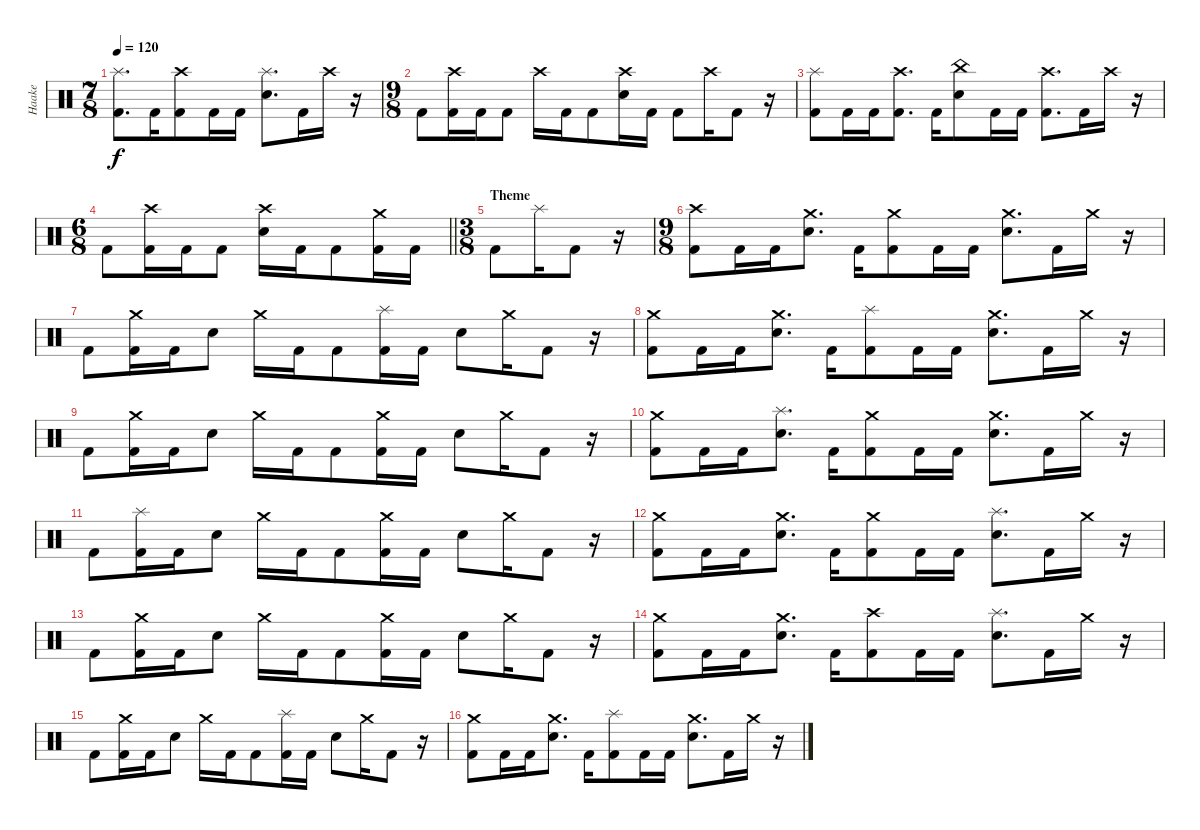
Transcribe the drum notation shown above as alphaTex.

\track ("Haake" "Haake") {instrument percussion}
\staff {score}
\articulation defaults
\ts (7 8)
\tempo 120
\clef neutral
\ks c
("Splash (hit)" "Kick (hit) 2").8{d dy f} "Kick (hit) 2".16 ("Crash high (hit)" "Kick (hit) 2").8 "Kick (hit) 2".16 "Kick (hit) 2".16 ("Splash (hit)" "Electric Snare (hit)").8{d} "Kick (hit) 2".16 "Crash high (hit)".16 r.16 |
\ts (9 8)
"Kick (hit) 2".8 ("Crash high (hit)" "Kick (hit) 2").16 "Kick (hit) 2".16 "Kick (hit) 2".8 "Crash high (hit)".16 "Kick (hit) 2".16 "Kick (hit) 2".8 ("Crash high (hit)" "Electric Snare (hit)").16 "Kick (hit) 2".16 "Kick (hit) 2".8 "Crash high (hit)".16 "Kick (hit) 2".8 r.16 |
("Splash (hit)" "Kick (hit) 2").8 "Kick (hit) 2".16 "Kick (hit) 2".16 ("Crash high (hit)" "Kick (hit) 2").8{d} "Kick (hit) 2".16 ("China (hit)" "Electric Snare (hit)").8 "Kick (hit) 2".16 "Kick (hit) 2".16 ("Crash high (hit)" "Kick (hit) 2").8{d} "Kick (hit) 2".16 "Crash high (hit)".16 r.16 |
\ts (6 8)
\barLineRight lightlight "Kick (hit) 2".8
("Crash high (hit)" "Kick (hit) 2").16 "Kick (hit) 2".16 "Kick (hit) 2".8 ("Crash high (hit)" "Electric Snare (hit)").16 "Kick (hit) 2".16 "Kick (hit) 2".8 ("Crash medium (hit)" "Kick (hit) 2").16 "Kick (hit) 2".16 |
\ts (3 8)
\section ("" "Theme")
"Kick (hit) 2".8 "Splash (hit)".16 "Kick (hit) 2".8 r.16 |
\ts (9 8)
("Crash high (hit)" "Kick (hit) 2").8 "Kick (hit) 2".16 "Kick (hit) 2".16 ("Crash medium (hit)" "Electric Snare (hit)").8{d} "Kick (hit) 2".16 ("Crash medium (hit)" "Kick (hit) 2").8 "Kick (hit) 2".16 "Kick (hit) 2".16 ("Crash medium (hit)" "Electric Snare (hit)").8{d} "Kick (hit) 2".16 "Crash medium (hit)".16 r.16 |
"Kick (hit) 2".8 ("Crash medium (hit)" "Kick (hit) 2").16 "Kick (hit) 2".16 "Electric Snare (hit)".8 "Crash medium (hit)".16 "Kick (hit) 2".16 "Kick (hit) 2".8 ("Splash (hit)" "Kick (hit) 2").16 "Kick (hit) 2".16 "Electric Snare (hit)".8 "Crash medium (hit)".16 "Kick (hit) 2".8 r.16 |
("Crash medium (hit)" "Kick (hit) 2").8 "Kick (hit) 2".16 "Kick (hit) 2".16 ("Crash medium (hit)" "Electric Snare (hit)").8{d} "Kick (hit) 2".16 ("Splash (hit)" "Kick (hit) 2").8 "Kick (hit) 2".16 "Kick (hit) 2".16 ("Crash medium (hit)" "Electric Snare (hit)").8{d} "Kick (hit) 2".16 "Crash medium (hit)".16 r.16 |
"Kick (hit) 2".8 ("Crash medium (hit)" "Kick (hit) 2").16 "Kick (hit) 2".16 "Electric Snare (hit)".8 "Crash medium (hit)".16 "Kick (hit) 2".16 "Kick (hit) 2".8 ("Crash medium (hit)" "Kick (hit) 2").16 "Kick (hit) 2".16 "Electric Snare (hit)".8 "Crash medium (hit)".16 "Kick (hit) 2".8 r.16 |
("Crash medium (hit)" "Kick (hit) 2").8 "Kick (hit) 2".16 "Kick (hit) 2".16 ("Splash (hit)" "Electric Snare (hit)").8{d} "Kick (hit) 2".16 ("Crash medium (hit)" "Kick (hit) 2").8 "Kick (hit) 2".16 "Kick (hit) 2".16 ("Crash medium (hit)" "Electric Snare (hit)").8{d} "Kick (hit) 2".16 "Crash medium (hit)".16 r.16 |
"Kick (hit) 2".8 ("Splash (hit)" "Kick (hit) 2").16 "Kick (hit) 2".16 "Electric Snare (hit)".8 "Crash medium (hit)".16 "Kick (hit) 2".16 "Kick (hit) 2".8 ("Crash medium (hit)" "Kick (hit) 2").16 "Kick (hit) 2".16 "Electric Snare (hit)".8 "Crash medium (hit)".16 "Kick (hit) 2".8 r.16 |
("Crash medium (hit)" "Kick (hit) 2").8 "Kick (hit) 2".16 "Kick (hit) 2".16 ("Crash medium (hit)" "Electric Snare (hit)").8{d} "Kick (hit) 2".16 ("Crash medium (hit)" "Kick (hit) 2").8 "Kick (hit) 2".16 "Kick (hit) 2".16 ("Splash (hit)" "Electric Snare (hit)").8{d} "Kick (hit) 2".16 "Crash medium (hit)".16 r.16 |
"Kick (hit) 2".8 ("Crash medium (hit)" "Kick (hit) 2").16 "Kick (hit) 2".16 "Electric Snare (hit)".8 "Crash medium (hit)".16 "Kick (hit) 2".16 "Kick (hit) 2".8 ("Crash medium (hit)" "Kick (hit) 2").16 "Kick (hit) 2".16 "Electric Snare (hit)".8 "Crash medium (hit)".16 "Kick (hit) 2".8 r.16 |
("Crash medium (hit)" "Kick (hit) 2").8 "Kick (hit) 2".16 "Kick (hit) 2".16 ("Crash medium (hit)" "Electric Snare (hit)").8{d} "Kick (hit) 2".16 ("Crash high (hit)" "Kick (hit) 2").8 "Kick (hit) 2".16 "Kick (hit) 2".16 ("Splash (hit)" "Electric Snare (hit)").8{d} "Kick (hit) 2".16 "Crash medium (hit)".16 r.16 |
"Kick (hit) 2".8 ("Crash medium (hit)" "Kick (hit) 2").16 "Kick (hit) 2".16 "Electric Snare (hit)".8 "Crash medium (hit)".16 "Kick (hit) 2".16 "Kick (hit) 2".8 ("Splash (hit)" "Kick (hit) 2").16 "Kick (hit) 2".16 "Electric Snare (hit)".8 "Crash medium (hit)".16 "Kick (hit) 2".8 r.16 |
("Crash medium (hit)" "Kick (hit) 2").8 "Kick (hit) 2".16 "Kick (hit) 2".16 ("Crash medium (hit)" "Electric Snare (hit)").8{d} "Kick (hit) 2".16 ("Splash (hit)" "Kick (hit) 2").8 "Kick (hit) 2".16 "Kick (hit) 2".16 ("Crash medium (hit)" "Electric Snare (hit)").8{d} "Kick (hit) 2".16 "Crash medium (hit)".16 r.16
